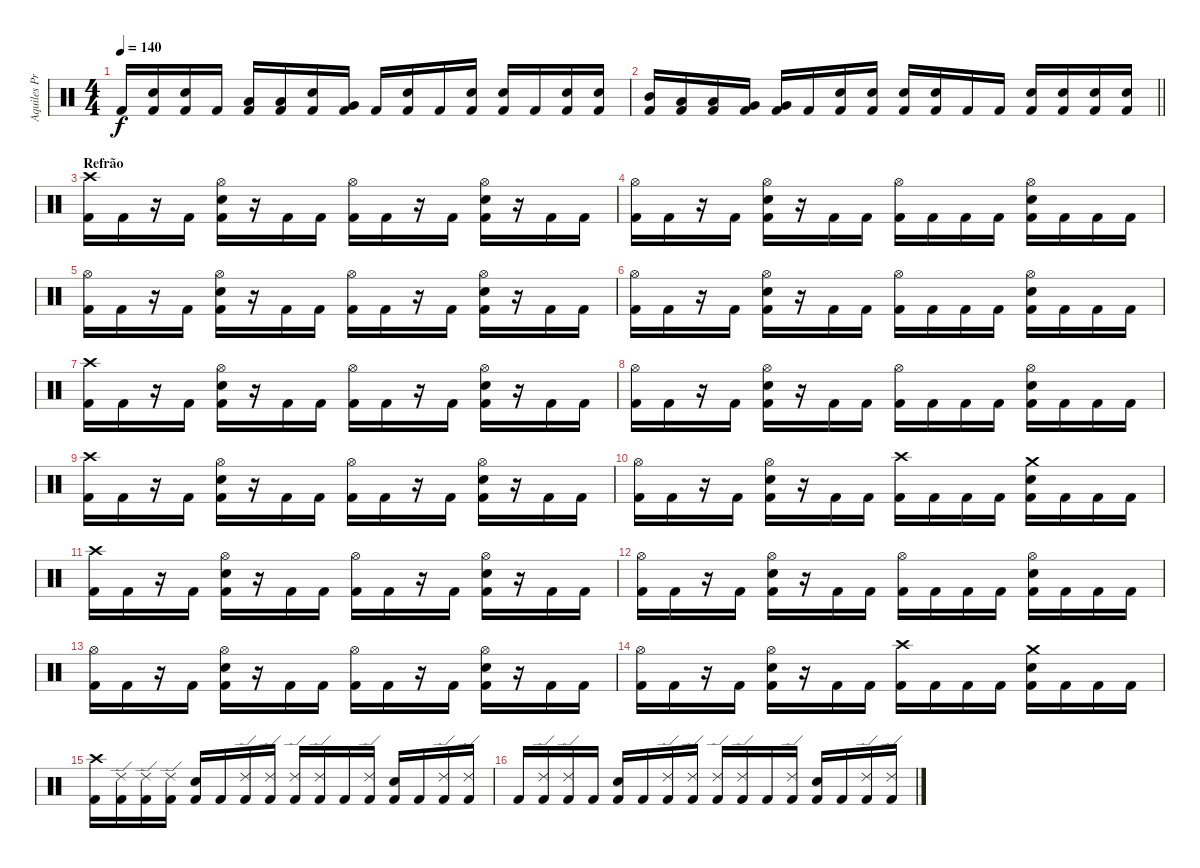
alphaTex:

\track ("Aquiles Priester" "Aquiles Pr") {instrument percussion}
\staff {score}
\articulation defaults
\ts (4 4)
\tempo 140
\clef neutral
\ks c "Kick (hit) 2".16{dy f}
("Electric Snare (hit)" "Kick (hit) 2").16 ("Electric Snare (hit)" "Kick (hit) 2").16 "Kick (hit) 2".16 ("Low Tom (hit)" "Kick (hit) 2").16 ("Low Tom (hit)" "Kick (hit) 2").16 ("Electric Snare (hit)" "Kick (hit) 2").16 ("Very Low Tom (hit)" "Kick (hit) 2").16 "Kick (hit) 2".16 ("Electric Snare (hit)" "Kick (hit) 2").16 "Kick (hit) 2".16 ("Electric Snare (hit)" "Kick (hit) 2").16 ("Electric Snare (hit)" "Kick (hit) 2").16 "Kick (hit) 2".16 ("Electric Snare (hit)" "Kick (hit) 2").16 ("Electric Snare (hit)" "Kick (hit) 2").16 |
\barLineRight lightlight
("Mid Tom (hit)" "Kick (hit) 2").16 ("Low Tom (hit)" "Kick (hit) 2").16 ("Low Tom (hit)" "Kick (hit) 2").16 ("Very Low Tom (hit)" "Kick (hit) 2").16 ("Very Low Tom (hit)" "Kick (hit) 2").16 "Kick (hit) 2".16 ("Electric Snare (hit)" "Kick (hit) 2").16 ("Electric Snare (hit)" "Kick (hit) 2").16 ("Electric Snare (hit)" "Kick (hit) 2").16 ("Electric Snare (hit)" "Kick (hit) 2").16 "Kick (hit) 2".16 "Kick (hit) 2".16 ("Electric Snare (hit)" "Kick (hit) 2").16 ("Electric Snare (hit)" "Kick (hit) 2").16 ("Electric Snare (hit)" "Kick (hit) 2").16 ("Electric Snare (hit)" "Kick (hit) 2").16 |
\section ("" "Refrão")
("Crash high (hit)" "Kick (hit) 2").16 "Kick (hit) 2".16 r.16 "Kick (hit) 2".16 ("Hi-Hat (open)" "Electric Snare (hit)" "Kick (hit) 2").16 r.16 "Kick (hit) 2".16 "Kick (hit) 2".16 ("Hi-Hat (open)" "Kick (hit) 2").16 "Kick (hit) 2".16 r.16 "Kick (hit) 2".16 ("Hi-Hat (open)" "Electric Snare (hit)" "Kick (hit) 2").16 r.16 "Kick (hit) 2".16 "Kick (hit) 2".16 |
("Hi-Hat (open)" "Kick (hit) 2").16 "Kick (hit) 2".16 r.16 "Kick (hit) 2".16 ("Hi-Hat (open)" "Electric Snare (hit)" "Kick (hit) 2").16 r.16 "Kick (hit) 2".16 "Kick (hit) 2".16 ("Hi-Hat (open)" "Kick (hit) 2").16 "Kick (hit) 2".16 "Kick (hit) 2".16 "Kick (hit) 2".16 ("Hi-Hat (open)" "Electric Snare (hit)" "Kick (hit) 2").16 "Kick (hit) 2".16 "Kick (hit) 2".16 "Kick (hit) 2".16 |
("Hi-Hat (open)" "Kick (hit) 2").16 "Kick (hit) 2".16 r.16 "Kick (hit) 2".16 ("Hi-Hat (open)" "Electric Snare (hit)" "Kick (hit) 2").16 r.16 "Kick (hit) 2".16 "Kick (hit) 2".16 ("Hi-Hat (open)" "Kick (hit) 2").16 "Kick (hit) 2".16 r.16 "Kick (hit) 2".16 ("Hi-Hat (open)" "Electric Snare (hit)" "Kick (hit) 2").16 r.16 "Kick (hit) 2".16 "Kick (hit) 2".16 |
("Hi-Hat (open)" "Kick (hit) 2").16 "Kick (hit) 2".16 r.16 "Kick (hit) 2".16 ("Hi-Hat (open)" "Electric Snare (hit)" "Kick (hit) 2").16 r.16 "Kick (hit) 2".16 "Kick (hit) 2".16 ("Hi-Hat (open)" "Kick (hit) 2").16 "Kick (hit) 2".16 "Kick (hit) 2".16 "Kick (hit) 2".16 ("Hi-Hat (open)" "Electric Snare (hit)" "Kick (hit) 2").16 "Kick (hit) 2".16 "Kick (hit) 2".16 "Kick (hit) 2".16 |
("Crash high (hit)" "Kick (hit) 2").16 "Kick (hit) 2".16 r.16 "Kick (hit) 2".16 ("Hi-Hat (open)" "Electric Snare (hit)" "Kick (hit) 2").16 r.16 "Kick (hit) 2".16 "Kick (hit) 2".16 ("Hi-Hat (open)" "Kick (hit) 2").16 "Kick (hit) 2".16 r.16 "Kick (hit) 2".16 ("Hi-Hat (open)" "Electric Snare (hit)" "Kick (hit) 2").16 r.16 "Kick (hit) 2".16 "Kick (hit) 2".16 |
("Hi-Hat (open)" "Kick (hit) 2").16 "Kick (hit) 2".16 r.16 "Kick (hit) 2".16 ("Hi-Hat (open)" "Electric Snare (hit)" "Kick (hit) 2").16 r.16 "Kick (hit) 2".16 "Kick (hit) 2".16 ("Hi-Hat (open)" "Kick (hit) 2").16 "Kick (hit) 2".16 "Kick (hit) 2".16 "Kick (hit) 2".16 ("Hi-Hat (open)" "Electric Snare (hit)" "Kick (hit) 2").16 "Kick (hit) 2".16 "Kick (hit) 2".16 "Kick (hit) 2".16 |
("Crash high (hit)" "Kick (hit) 2").16 "Kick (hit) 2".16 r.16 "Kick (hit) 2".16 ("Hi-Hat (open)" "Electric Snare (hit)" "Kick (hit) 2").16 r.16 "Kick (hit) 2".16 "Kick (hit) 2".16 ("Hi-Hat (open)" "Kick (hit) 2").16 "Kick (hit) 2".16 r.16 "Kick (hit) 2".16 ("Hi-Hat (open)" "Electric Snare (hit)" "Kick (hit) 2").16 r.16 "Kick (hit) 2".16 "Kick (hit) 2".16 |
("Hi-Hat (open)" "Kick (hit) 2").16 "Kick (hit) 2".16 r.16 "Kick (hit) 2".16 ("Hi-Hat (open)" "Electric Snare (hit)" "Kick (hit) 2").16 r.16 "Kick (hit) 2".16 "Kick (hit) 2".16 ("Crash high (hit)" "Kick (hit) 2").16 "Kick (hit) 2".16 "Kick (hit) 2".16 "Kick (hit) 2".16 ("Crash medium (hit)" "Electric Snare (hit)" "Kick (hit) 2").16 "Kick (hit) 2".16 "Kick (hit) 2".16 "Kick (hit) 2".16 |
("Crash high (hit)" "Kick (hit) 2").16 "Kick (hit) 2".16 r.16 "Kick (hit) 2".16 ("Hi-Hat (open)" "Electric Snare (hit)" "Kick (hit) 2").16 r.16 "Kick (hit) 2".16 "Kick (hit) 2".16 ("Hi-Hat (open)" "Kick (hit) 2").16 "Kick (hit) 2".16 r.16 "Kick (hit) 2".16 ("Hi-Hat (open)" "Electric Snare (hit)" "Kick (hit) 2").16 r.16 "Kick (hit) 2".16 "Kick (hit) 2".16 |
("Hi-Hat (open)" "Kick (hit) 2").16 "Kick (hit) 2".16 r.16 "Kick (hit) 2".16 ("Hi-Hat (open)" "Electric Snare (hit)" "Kick (hit) 2").16 r.16 "Kick (hit) 2".16 "Kick (hit) 2".16 ("Hi-Hat (open)" "Kick (hit) 2").16 "Kick (hit) 2".16 "Kick (hit) 2".16 "Kick (hit) 2".16 ("Hi-Hat (open)" "Electric Snare (hit)" "Kick (hit) 2").16 "Kick (hit) 2".16 "Kick (hit) 2".16 "Kick (hit) 2".16 |
("Hi-Hat (open)" "Kick (hit) 2").16 "Kick (hit) 2".16 r.16 "Kick (hit) 2".16 ("Hi-Hat (open)" "Electric Snare (hit)" "Kick (hit) 2").16 r.16 "Kick (hit) 2".16 "Kick (hit) 2".16 ("Hi-Hat (open)" "Kick (hit) 2").16 "Kick (hit) 2".16 r.16 "Kick (hit) 2".16 ("Hi-Hat (open)" "Electric Snare (hit)" "Kick (hit) 2").16 r.16 "Kick (hit) 2".16 "Kick (hit) 2".16 |
("Hi-Hat (open)" "Kick (hit) 2").16 "Kick (hit) 2".16 r.16 "Kick (hit) 2".16 ("Hi-Hat (open)" "Electric Snare (hit)" "Kick (hit) 2").16 r.16 "Kick (hit) 2".16 "Kick (hit) 2".16 ("Crash high (hit)" "Kick (hit) 2").16 "Kick (hit) 2".16 "Kick (hit) 2".16 "Kick (hit) 2".16 ("Crash medium (hit)" "Electric Snare (hit)" "Kick (hit) 2").16 "Kick (hit) 2".16 "Kick (hit) 2".16 "Kick (hit) 2".16 |
("Crash high (hit)" "Kick (hit) 2").16 ("Ride (edge) 2" "Kick (hit) 2").16 ("Ride (edge) 2" "Kick (hit) 2").16 ("Ride (edge) 2" "Kick (hit) 2").16 ("Electric Snare (hit)" "Kick (hit) 2").16 "Kick (hit) 2".16 ("Ride (edge) 2" "Kick (hit) 2").16 ("Ride (edge) 2" "Kick (hit) 2").16 ("Ride (edge) 2" "Kick (hit) 2").16 ("Ride (edge) 2" "Kick (hit) 2").16 "Kick (hit) 2".16 ("Ride (edge) 2" "Kick (hit) 2").16 ("Electric Snare (hit)" "Kick (hit) 2").16 "Kick (hit) 2".16 ("Ride (edge) 2" "Kick (hit) 2").16 ("Ride (edge) 2" "Kick (hit) 2").16 |
"Kick (hit) 2".16 ("Ride (edge) 2" "Kick (hit) 2").16 ("Ride (edge) 2" "Kick (hit) 2").16 "Kick (hit) 2".16 ("Electric Snare (hit)" "Kick (hit) 2").16 "Kick (hit) 2".16 ("Ride (edge) 2" "Kick (hit) 2").16 ("Ride (edge) 2" "Kick (hit) 2").16 ("Ride (edge) 2" "Kick (hit) 2").16 ("Ride (edge) 2" "Kick (hit) 2").16 "Kick (hit) 2".16 ("Ride (edge) 2" "Kick (hit) 2").16 ("Electric Snare (hit)" "Kick (hit) 2").16 "Kick (hit) 2".16 ("Ride (edge) 2" "Kick (hit) 2").16 ("Ride (edge) 2" "Kick (hit) 2").16
